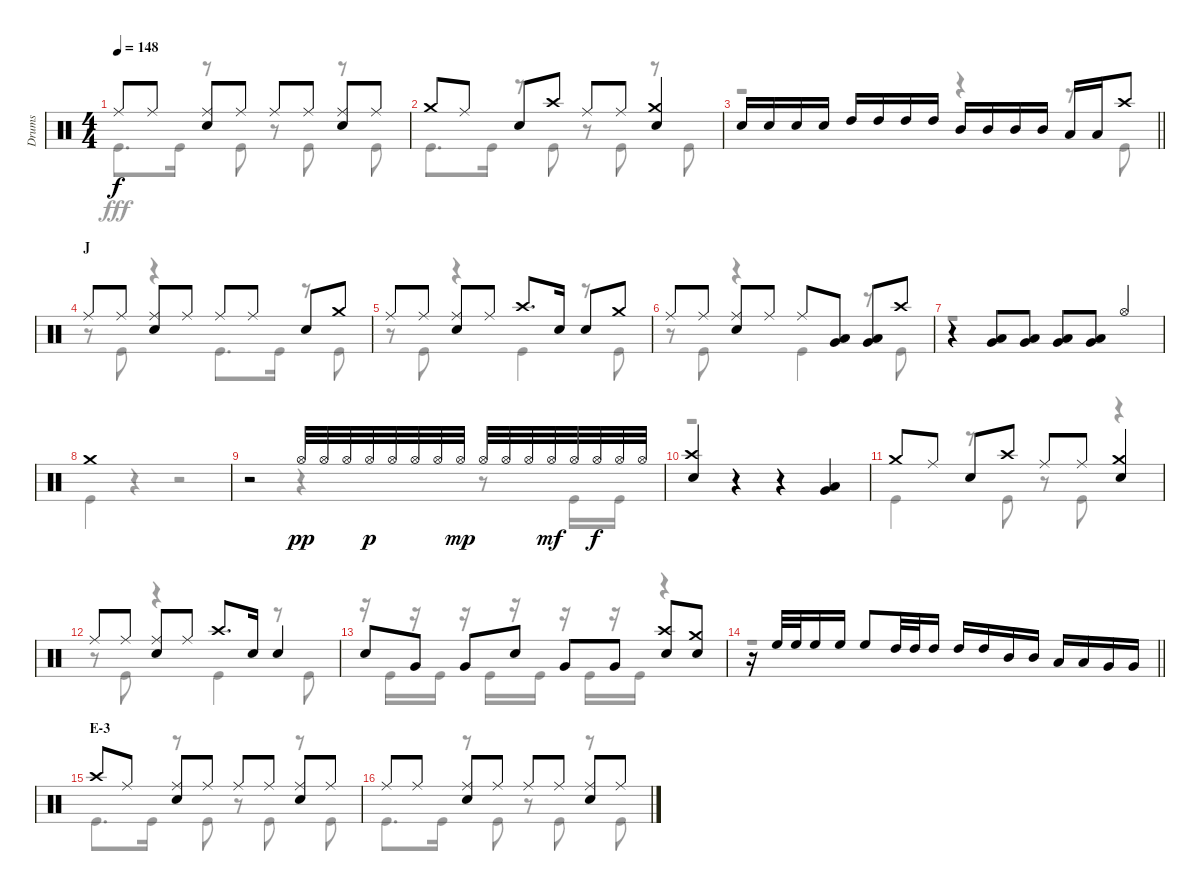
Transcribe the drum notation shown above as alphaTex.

\track ("Drums" "Drums") {instrument percussion}
\staff {score}
\articulation defaults
\voice
\ts (4 4)
\tempo 148
\clef neutral
\ks c "Ride (middle)".8{dy f} "Ride (middle)".8
("Ride (middle)" "Snare (hit) 2").8 "Ride (middle)".8 "Ride (middle)".8 "Ride (middle)".8 ("Ride (middle)" "Snare (hit) 2").8 "Ride (middle)".8 |
"Crash medium (hit)".8 "Ride (middle)".8 "Snare (hit) 2".8 "Crash high (hit)".8 "Ride (middle)".8 "Ride (middle)".8 ("Crash medium (hit)" "Snare (hit) 2").4 |
\barLineRight lightlight "Snare (hit) 2".16 "Snare (hit) 2".16 "Snare (hit) 2".16 "Snare (hit) 2".16 "High Tom (hit)".16 "High Tom (hit)".16 "High Tom (hit)".16 "High Tom (hit)".16 "Mid Tom (hit)".16 "Mid Tom (hit)".16 "Mid Tom (hit)".16 "Mid Tom (hit)".16 "Low Tom (hit)".16 "Low Tom (hit)".16 "Crash high (hit)".8
|
\section ("" "J")
"Ride (middle)".8 "Ride (middle)".8 ("Ride (middle)" "Snare (hit) 2").8 "Ride (middle)".8 "Ride (middle)".8 "Ride (middle)".8 "Snare (hit) 2".8 "Crash medium (hit)".8 |
"Ride (middle)".8 "Ride (middle)".8 ("Ride (middle)" "Snare (hit) 2").8 "Ride (middle)".8 "Crash high (hit)".8{d} "Snare (hit) 2".16 "Snare (hit) 2".8 "Crash medium (hit)".8 |
"Ride (middle)".8 "Ride (middle)".8 ("Ride (middle)" "Snare (hit) 2").8 "Ride (middle)".8 "Ride (middle)".8 ("Low Tom (hit)" "Very Low Tom (hit)").8 ("Low Tom (hit)" "Very Low Tom (hit)").8 "Crash high (hit)".8 |
r.4 ("Low Tom (hit)" "Very Low Tom (hit)").8 ("Low Tom (hit)" "Very Low Tom (hit)").8 ("Low Tom (hit)" "Very Low Tom (hit)").8 ("Low Tom (hit)" "Very Low Tom (hit)").8 "Hi-Hat (open)".4 |
"Crash medium (hit)".1 |
r.2 "Hi-Hat (open)".32{dy pp} "Hi-Hat (open)".32 "Hi-Hat (open)".32 "Hi-Hat (open)".32{dy p} "Hi-Hat (open)".32 "Hi-Hat (open)".32 "Hi-Hat (open)".32 "Hi-Hat (open)".32{dy mp} "Hi-Hat (open)".32 "Hi-Hat (open)".32 "Hi-Hat (open)".32 "Hi-Hat (open)".32{dy mf} "Hi-Hat (open)".32 "Hi-Hat (open)".32{dy f} "Hi-Hat (open)".32 "Hi-Hat (open)".32 |
("Crash high (hit)" "Snare (hit) 2").4 r.4 r.4 ("Low Tom (hit)" "Very Low Tom (hit)").4 |
"Crash medium (hit)".8 "Ride (middle)".8 "Snare (hit) 2".8 "Crash high (hit)".8 "Ride (middle)".8 "Ride (middle)".8 ("Crash medium (hit)" "Snare (hit) 2").4 |
"Ride (middle)".8 "Ride (middle)".8 ("Ride (middle)" "Snare (hit) 2").8 "Ride (middle)".8 "Crash high (hit)".8{d} "Snare (hit) 2".16 "Snare (hit) 2".4 |
"Snare (hit) 2".8 "Very Low Tom (hit)".8 "Very Low Tom (hit)".8 "Snare (hit) 2".8 "Very Low Tom (hit)".8 "Very Low Tom (hit)".8 ("Crash high (hit)" "Snare (hit) 2").8 ("Crash medium (hit)" "Snare (hit) 2").8 |
\barLineRight lightlight
r.16 "High Floor Tom (hit)".32 "High Floor Tom (hit)".32 "High Floor Tom (hit)".16 "High Floor Tom (hit)".16 "High Floor Tom (hit)".8 "High Tom (hit)".32 "High Tom (hit)".32 "High Tom (hit)".16 "High Tom (hit)".16 "High Tom (hit)".16 "Mid Tom (hit)".16 "Mid Tom (hit)".16 "Low Tom (hit)".16 "Low Tom (hit)".16 "Very Low Tom (hit)".16 "Very Low Tom (hit)".16 |
\section ("" "E-3")
"Crash high (hit)".8 "Ride (middle)".8 ("Ride (middle)" "Snare (hit) 2").8 "Ride (middle)".8 "Ride (middle)".8 "Ride (middle)".8 ("Ride (middle)" "Snare (hit) 2").8 "Ride (middle)".8 |
"Ride (middle)".8 "Ride (middle)".8 ("Ride (middle)" "Snare (hit) 2").8 "Ride (middle)".8 "Ride (middle)".8 "Ride (middle)".8 ("Ride (middle)" "Snare (hit) 2").8 "Ride (middle)".8
\voice
\clef neutral
\ottava regular
\simile none
\ks c "Kick (hit)".8{d dy fff} "Kick (hit)".16
r.8 "Kick (hit)".8 r.8 "Kick (hit)".8 r.8 "Kick (hit)".8 |
"Kick (hit)".8{d} "Kick (hit)".16 r.8 "Kick (hit)".8 r.8 "Kick (hit)".8 r.8 "Kick (hit)".8 |
\barLineRight lightlight
r.2 r.4 r.8 "Kick (hit)".8 |
r.8 "Kick (hit)".8 r.4 "Kick (hit)".8{d} "Kick (hit)".16 r.8 "Kick (hit)".8 |
r.8 "Kick (hit)".8 r.4 "Kick (hit)".4 r.8 "Kick (hit)".8 |
r.8 "Kick (hit)".8 r.4 "Kick (hit)".4 r.8 "Kick (hit)".8 |
r.1 |
"Kick (hit)".4 r.4 r.2 |
r.2 r.4 r.8 "Kick (hit)".16 "Kick (hit)".16 |
r.1 |
"Kick (hit)".4 r.8 "Kick (hit)".8 r.8 "Kick (hit)".8 r.4 |
r.8 "Kick (hit)".8 r.4 "Kick (hit)".4 r.8 "Kick (hit)".8 |
r.16 "Kick (hit)".16 r.16 "Kick (hit)".16 r.16 "Kick (hit)".16 r.16 "Kick (hit)".16 r.16 "Kick (hit)".16 r.16 "Kick (hit)".16 r.4 |
\barLineRight lightlight
r.1 |
"Kick (hit)".8{d} "Kick (hit)".16 r.8 "Kick (hit)".8 r.8 "Kick (hit)".8 r.8 "Kick (hit)".8 |
"Kick (hit)".8{d} "Kick (hit)".16 r.8 "Kick (hit)".8 r.8 "Kick (hit)".8 r.8 "Kick (hit)".8
